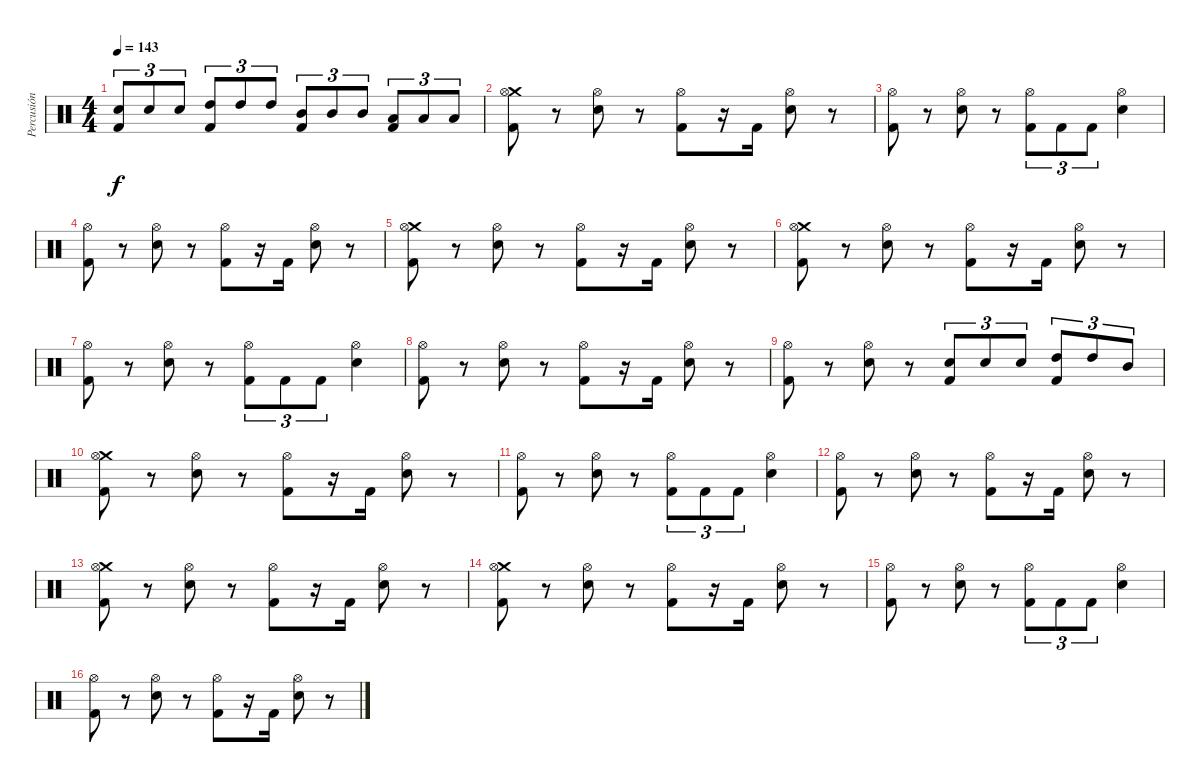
\track ("Percusión" "Percusión") {instrument percussion}
\staff {score}
\articulation defaults
\ts (4 4)
\tempo 143
\clef neutral
\ks c
("Electric Snare (hit)" "Kick (hit) 2").8{tu (3 2) dy f} "Electric Snare (hit)".8{tu (3 2)} "Electric Snare (hit)".8{tu (3 2)} ("High Tom (hit)" "Kick (hit) 2").8{tu (3 2)} "High Tom (hit)".8{tu (3 2)} "High Tom (hit)".8{tu (3 2)} ("Mid Tom (hit)" "Kick (hit) 2").8{tu (3 2)} "Mid Tom (hit)".8{tu (3 2)} "Mid Tom (hit)".8{tu (3 2)} ("Low Tom (hit)" "Kick (hit) 2").8{tu (3 2)} "Low Tom (hit)".8{tu (3 2)} "Low Tom (hit)".8{tu (3 2)} |
("Crash medium (hit)" "Hi-Hat (open)" "Kick (hit) 2").8 r.8 ("Hi-Hat (open)" "Electric Snare (hit)").8 r.8 ("Hi-Hat (open)" "Kick (hit) 2").8 r.16 "Kick (hit) 2".16 ("Electric Snare (hit)" "Hi-Hat (open)").8 r.8 |
("Hi-Hat (open)" "Kick (hit) 2").8 r.8 ("Hi-Hat (open)" "Electric Snare (hit)").8 r.8 ("Hi-Hat (open)" "Kick (hit) 2").8{tu (3 2)} "Kick (hit) 2".8{tu (3 2)} "Kick (hit) 2".8{tu (3 2)} ("Hi-Hat (open)" "Electric Snare (hit)").4 |
("Hi-Hat (open)" "Kick (hit) 2").8 r.8 ("Hi-Hat (open)" "Electric Snare (hit)").8 r.8 ("Hi-Hat (open)" "Kick (hit) 2").8 r.16 "Kick (hit) 2".16 ("Electric Snare (hit)" "Hi-Hat (open)").8 r.8 |
("Crash medium (hit)" "Hi-Hat (open)" "Kick (hit) 2").8 r.8 ("Hi-Hat (open)" "Electric Snare (hit)").8 r.8 ("Hi-Hat (open)" "Kick (hit) 2").8 r.16 "Kick (hit) 2".16 ("Electric Snare (hit)" "Hi-Hat (open)").8 r.8 |
("Crash medium (hit)" "Hi-Hat (open)" "Kick (hit) 2").8 r.8 ("Hi-Hat (open)" "Electric Snare (hit)").8 r.8 ("Hi-Hat (open)" "Kick (hit) 2").8 r.16 "Kick (hit) 2".16 ("Electric Snare (hit)" "Hi-Hat (open)").8 r.8 |
("Hi-Hat (open)" "Kick (hit) 2").8 r.8 ("Hi-Hat (open)" "Electric Snare (hit)").8 r.8 ("Hi-Hat (open)" "Kick (hit) 2").8{tu (3 2)} "Kick (hit) 2".8{tu (3 2)} "Kick (hit) 2".8{tu (3 2)} ("Hi-Hat (open)" "Electric Snare (hit)").4 |
("Hi-Hat (open)" "Kick (hit) 2").8 r.8 ("Hi-Hat (open)" "Electric Snare (hit)").8 r.8 ("Hi-Hat (open)" "Kick (hit) 2").8 r.16 "Kick (hit) 2".16 ("Electric Snare (hit)" "Hi-Hat (open)").8 r.8 |
("Hi-Hat (open)" "Kick (hit) 2").8 r.8 ("Hi-Hat (open)" "Electric Snare (hit)").8 r.8 ("Electric Snare (hit)" "Kick (hit) 2").8{tu (3 2)} "Electric Snare (hit)".8{tu (3 2)} "Electric Snare (hit)".8{tu (3 2)} ("High Tom (hit)" "Kick (hit) 2").8{tu (3 2)} "High Tom (hit)".8{tu (3 2)} "Mid Tom (hit)".8{tu (3 2)} |
("Crash medium (hit)" "Hi-Hat (open)" "Kick (hit) 2").8 r.8 ("Hi-Hat (open)" "Electric Snare (hit)").8 r.8 ("Hi-Hat (open)" "Kick (hit) 2").8 r.16 "Kick (hit) 2".16 ("Electric Snare (hit)" "Hi-Hat (open)").8 r.8 |
("Hi-Hat (open)" "Kick (hit) 2").8 r.8 ("Hi-Hat (open)" "Electric Snare (hit)").8 r.8 ("Hi-Hat (open)" "Kick (hit) 2").8{tu (3 2)} "Kick (hit) 2".8{tu (3 2)} "Kick (hit) 2".8{tu (3 2)} ("Hi-Hat (open)" "Electric Snare (hit)").4 |
("Hi-Hat (open)" "Kick (hit) 2").8 r.8 ("Hi-Hat (open)" "Electric Snare (hit)").8 r.8 ("Hi-Hat (open)" "Kick (hit) 2").8 r.16 "Kick (hit) 2".16 ("Electric Snare (hit)" "Hi-Hat (open)").8 r.8 |
("Crash medium (hit)" "Hi-Hat (open)" "Kick (hit) 2").8 r.8 ("Hi-Hat (open)" "Electric Snare (hit)").8 r.8 ("Hi-Hat (open)" "Kick (hit) 2").8 r.16 "Kick (hit) 2".16 ("Electric Snare (hit)" "Hi-Hat (open)").8 r.8 |
("Crash medium (hit)" "Hi-Hat (open)" "Kick (hit) 2").8 r.8 ("Hi-Hat (open)" "Electric Snare (hit)").8 r.8 ("Hi-Hat (open)" "Kick (hit) 2").8 r.16 "Kick (hit) 2".16 ("Electric Snare (hit)" "Hi-Hat (open)").8 r.8 |
("Hi-Hat (open)" "Kick (hit) 2").8 r.8 ("Hi-Hat (open)" "Electric Snare (hit)").8 r.8 ("Hi-Hat (open)" "Kick (hit) 2").8{tu (3 2)} "Kick (hit) 2".8{tu (3 2)} "Kick (hit) 2".8{tu (3 2)} ("Hi-Hat (open)" "Electric Snare (hit)").4 |
("Hi-Hat (open)" "Kick (hit) 2").8 r.8 ("Hi-Hat (open)" "Electric Snare (hit)").8 r.8 ("Hi-Hat (open)" "Kick (hit) 2").8 r.16 "Kick (hit) 2".16 ("Electric Snare (hit)" "Hi-Hat (open)").8 r.8
